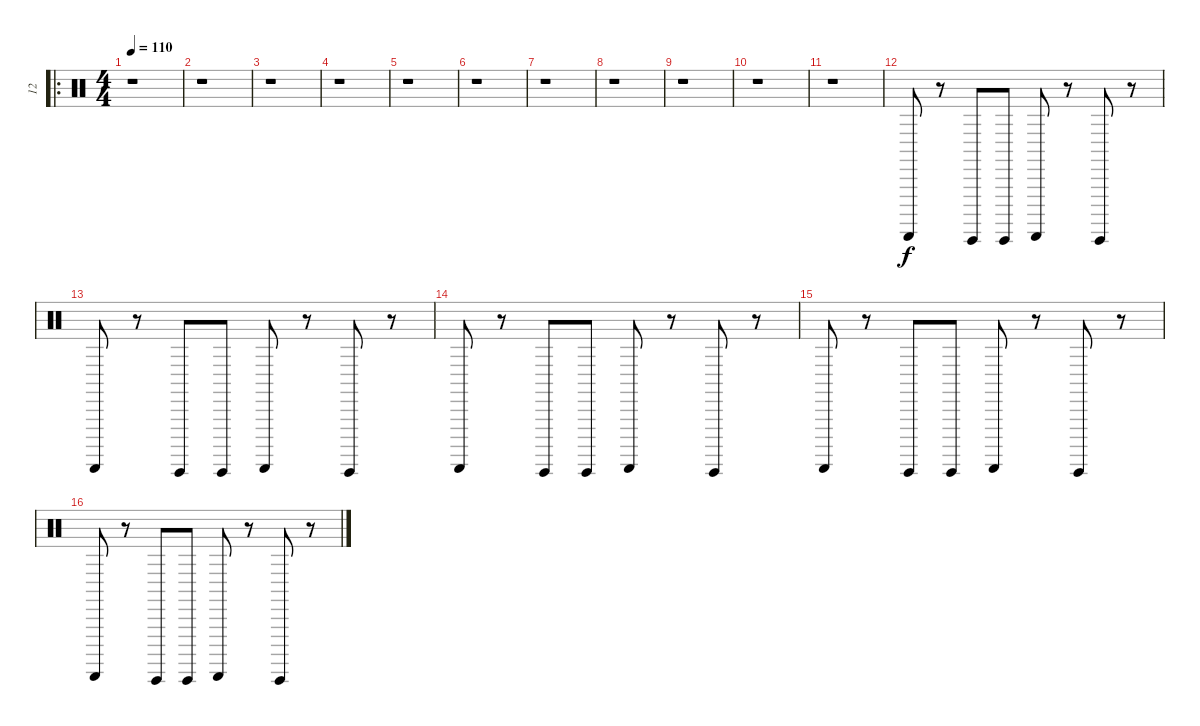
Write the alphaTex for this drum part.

\track ("12" "12") {instrument percussion}
\staff {score}
\articulation defaults
\ro
\ts (4 4)
\tempo 110
\clef neutral
\ks c
r.1{dy f} |
r.1 |
r.1 |
r.1 |
r.1 |
r.1 |
r.1 |
r.1 |
r.1 |
r.1 |
r.1 |
"Guiro (scrap-return)".8 r.8 "Guiro (hit)".8 "Guiro (hit)".8 "Guiro (scrap-return)".8 r.8 "Guiro (hit)".8 r.8 |
"Guiro (scrap-return)".8 r.8 "Guiro (hit)".8 "Guiro (hit)".8 "Guiro (scrap-return)".8 r.8 "Guiro (hit)".8 r.8 |
"Guiro (scrap-return)".8 r.8 "Guiro (hit)".8 "Guiro (hit)".8 "Guiro (scrap-return)".8 r.8 "Guiro (hit)".8 r.8 |
"Guiro (scrap-return)".8 r.8 "Guiro (hit)".8 "Guiro (hit)".8 "Guiro (scrap-return)".8 r.8 "Guiro (hit)".8 r.8 |
"Guiro (scrap-return)".8 r.8 "Guiro (hit)".8 "Guiro (hit)".8 "Guiro (scrap-return)".8 r.8 "Guiro (hit)".8 r.8
